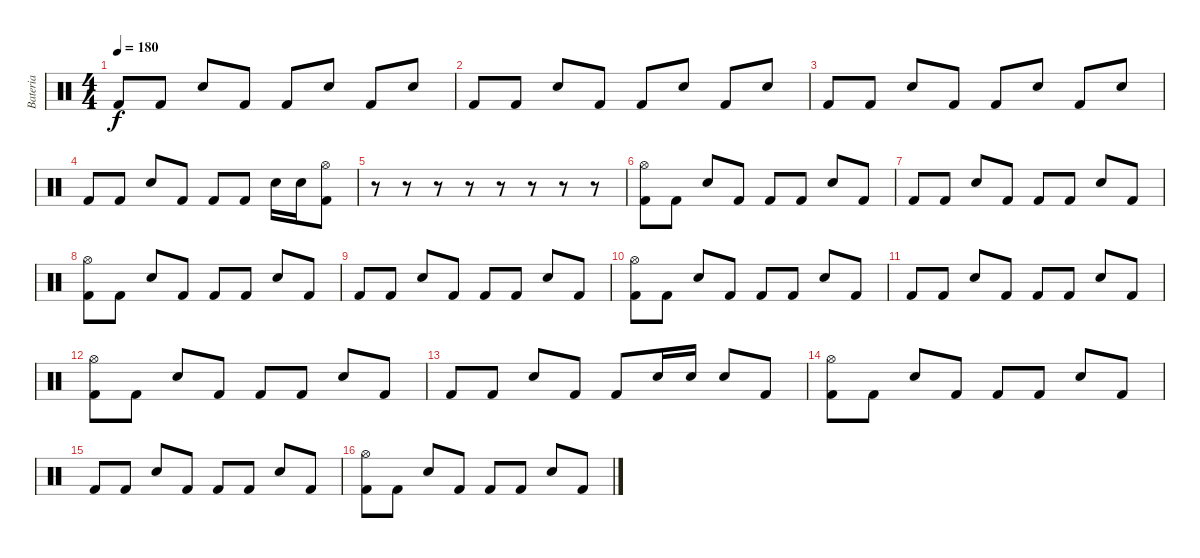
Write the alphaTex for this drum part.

\track ("Bateria" "Bateria") {instrument percussion}
\staff {score}
\articulation defaults
\ts (4 4)
\tempo 180
\clef neutral
\ks c "Kick (hit) 2".8{dy f} "Kick (hit) 2".8 "Electric Snare (hit)".8 "Kick (hit) 2".8 "Kick (hit) 2".8 "Electric Snare (hit)".8 "Kick (hit) 2".8 "Electric Snare (hit)".8
|
"Kick (hit) 2".8 "Kick (hit) 2".8 "Electric Snare (hit)".8 "Kick (hit) 2".8 "Kick (hit) 2".8 "Electric Snare (hit)".8 "Kick (hit) 2".8 "Electric Snare (hit)".8 |
"Kick (hit) 2".8 "Kick (hit) 2".8 "Electric Snare (hit)".8 "Kick (hit) 2".8 "Kick (hit) 2".8 "Electric Snare (hit)".8 "Kick (hit) 2".8 "Electric Snare (hit)".8 |
"Kick (hit) 2".8 "Kick (hit) 2".8 "Electric Snare (hit)".8 "Kick (hit) 2".8 "Kick (hit) 2".8 "Kick (hit) 2".8 "Electric Snare (hit)".16 "Electric Snare (hit)".16 ("Kick (hit) 2" "Hi-Hat (open)").8 |
r.8 r.8 r.8 r.8 r.8 r.8 r.8 r.8 |
("Kick (hit) 2" "Hi-Hat (open)").8 "Kick (hit) 2".8 "Electric Snare (hit)".8 "Kick (hit) 2".8 "Kick (hit) 2".8 "Kick (hit) 2".8 "Electric Snare (hit)".8 "Kick (hit) 2".8 |
"Kick (hit) 2".8 "Kick (hit) 2".8 "Electric Snare (hit)".8 "Kick (hit) 2".8 "Kick (hit) 2".8 "Kick (hit) 2".8 "Electric Snare (hit)".8 "Kick (hit) 2".8 |
("Kick (hit) 2" "Hi-Hat (open)").8 "Kick (hit) 2".8 "Electric Snare (hit)".8 "Kick (hit) 2".8 "Kick (hit) 2".8 "Kick (hit) 2".8 "Electric Snare (hit)".8 "Kick (hit) 2".8 |
"Kick (hit) 2".8 "Kick (hit) 2".8 "Electric Snare (hit)".8 "Kick (hit) 2".8 "Kick (hit) 2".8 "Kick (hit) 2".8 "Electric Snare (hit)".8 "Kick (hit) 2".8 |
("Kick (hit) 2" "Hi-Hat (open)").8 "Kick (hit) 2".8 "Electric Snare (hit)".8 "Kick (hit) 2".8 "Kick (hit) 2".8 "Kick (hit) 2".8 "Electric Snare (hit)".8 "Kick (hit) 2".8 |
"Kick (hit) 2".8 "Kick (hit) 2".8 "Electric Snare (hit)".8 "Kick (hit) 2".8 "Kick (hit) 2".8 "Kick (hit) 2".8 "Electric Snare (hit)".8 "Kick (hit) 2".8 |
("Kick (hit) 2" "Hi-Hat (open)").8 "Kick (hit) 2".8 "Electric Snare (hit)".8 "Kick (hit) 2".8 "Kick (hit) 2".8 "Kick (hit) 2".8 "Electric Snare (hit)".8 "Kick (hit) 2".8 |
"Kick (hit) 2".8 "Kick (hit) 2".8 "Electric Snare (hit)".8 "Kick (hit) 2".8 "Kick (hit) 2".8 "Electric Snare (hit)".16 "Electric Snare (hit)".16 "Electric Snare (hit)".8 "Kick (hit) 2".8 |
("Kick (hit) 2" "Hi-Hat (open)").8 "Kick (hit) 2".8 "Electric Snare (hit)".8 "Kick (hit) 2".8 "Kick (hit) 2".8 "Kick (hit) 2".8 "Electric Snare (hit)".8 "Kick (hit) 2".8 |
"Kick (hit) 2".8 "Kick (hit) 2".8 "Electric Snare (hit)".8 "Kick (hit) 2".8 "Kick (hit) 2".8 "Kick (hit) 2".8 "Electric Snare (hit)".8 "Kick (hit) 2".8 |
("Kick (hit) 2" "Hi-Hat (open)").8 "Kick (hit) 2".8 "Electric Snare (hit)".8 "Kick (hit) 2".8 "Kick (hit) 2".8 "Kick (hit) 2".8 "Electric Snare (hit)".8 "Kick (hit) 2".8
